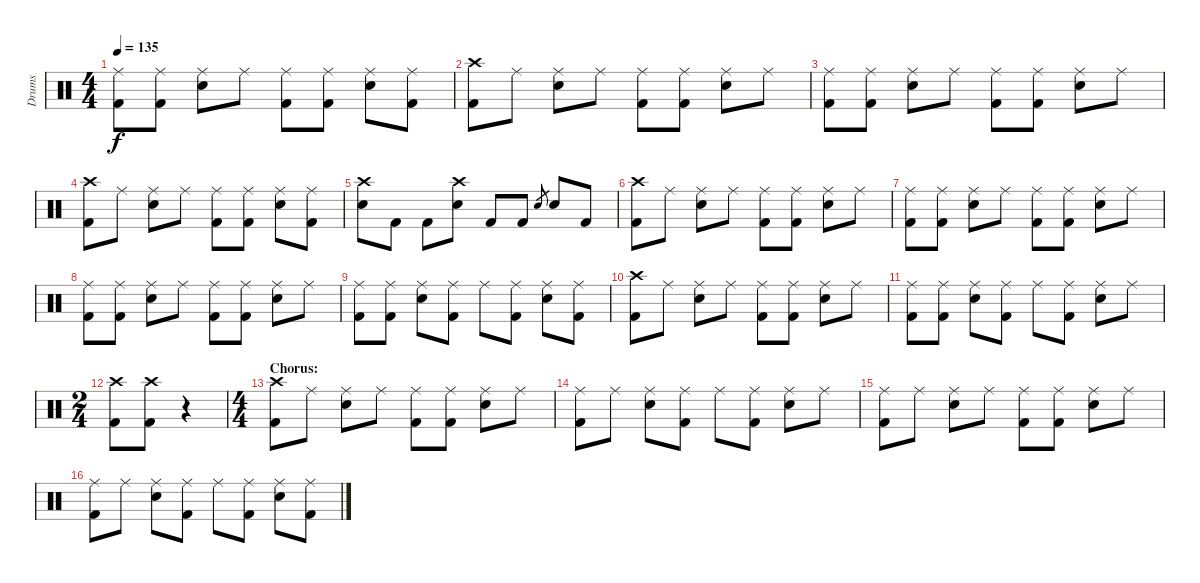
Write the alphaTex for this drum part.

\track ("Drums" "Drums") {instrument percussion}
\staff {score}
\articulation defaults
\ts (4 4)
\tempo 135
\clef neutral
\ks c
("Ride (middle)" "Kick (hit) 2").8{dy f} ("Ride (middle)" "Kick (hit) 2").8 ("Ride (middle)" "Electric Snare (hit)").8 "Ride (middle)".8 ("Ride (middle)" "Kick (hit) 2").8 ("Ride (middle)" "Kick (hit) 2").8 ("Ride (middle)" "Electric Snare (hit)").8 ("Ride (middle)" "Kick (hit) 2").8 |
("Crash high (hit)" "Kick (hit) 2").8 "Ride (middle)".8 ("Ride (middle)" "Electric Snare (hit)").8 "Ride (middle)".8 ("Ride (middle)" "Kick (hit) 2").8 ("Ride (middle)" "Kick (hit) 2").8 ("Ride (middle)" "Electric Snare (hit)").8 "Ride (middle)".8 |
("Ride (middle)" "Kick (hit) 2").8 ("Ride (middle)" "Kick (hit) 2").8 ("Ride (middle)" "Electric Snare (hit)").8 "Ride (middle)".8 ("Ride (middle)" "Kick (hit) 2").8 ("Ride (middle)" "Kick (hit) 2").8 ("Ride (middle)" "Electric Snare (hit)").8 "Ride (middle)".8 |
("Crash high (hit)" "Kick (hit) 2").8 "Ride (middle)".8 ("Ride (middle)" "Electric Snare (hit)").8 "Ride (middle)".8 ("Ride (middle)" "Kick (hit) 2").8 ("Ride (middle)" "Kick (hit) 2").8 ("Ride (middle)" "Electric Snare (hit)").8 ("Ride (middle)" "Kick (hit) 2").8 |
("Crash high (hit)" "Electric Snare (hit)").8 "Kick (hit) 2".8 "Kick (hit) 2".8 ("Crash high (hit)" "Electric Snare (hit)").8 "Kick (hit) 2".8 "Kick (hit) 2".8 "Electric Snare (hit)".8{gr} "Electric Snare (hit)".8 "Kick (hit) 2".8 |
("Crash high (hit)" "Kick (hit) 2").8 "Ride (middle)".8 ("Ride (middle)" "Electric Snare (hit)").8 "Ride (middle)".8 ("Ride (middle)" "Kick (hit) 2").8 ("Ride (middle)" "Kick (hit) 2").8 ("Ride (middle)" "Electric Snare (hit)").8 "Ride (middle)".8 |
("Ride (middle)" "Kick (hit) 2").8 ("Ride (middle)" "Kick (hit) 2").8 ("Ride (middle)" "Electric Snare (hit)").8 "Ride (middle)".8 ("Ride (middle)" "Kick (hit) 2").8 ("Ride (middle)" "Kick (hit) 2").8 ("Ride (middle)" "Electric Snare (hit)").8 "Ride (middle)".8 |
("Ride (middle)" "Kick (hit) 2").8 ("Ride (middle)" "Kick (hit) 2").8 ("Ride (middle)" "Electric Snare (hit)").8 "Ride (middle)".8 ("Ride (middle)" "Kick (hit) 2").8 ("Ride (middle)" "Kick (hit) 2").8 ("Ride (middle)" "Electric Snare (hit)").8 "Ride (middle)".8 |
("Ride (middle)" "Kick (hit) 2").8 ("Ride (middle)" "Kick (hit) 2").8 ("Ride (middle)" "Electric Snare (hit)").8 ("Ride (middle)" "Kick (hit) 2").8 "Ride (middle)".8 ("Ride (middle)" "Kick (hit) 2").8 ("Ride (middle)" "Electric Snare (hit)").8 ("Ride (middle)" "Kick (hit) 2").8 |
("Crash high (hit)" "Kick (hit) 2").8 "Ride (middle)".8 ("Ride (middle)" "Electric Snare (hit)").8 "Ride (middle)".8 ("Ride (middle)" "Kick (hit) 2").8 ("Ride (middle)" "Kick (hit) 2").8 ("Ride (middle)" "Electric Snare (hit)").8 "Ride (middle)".8 |
("Ride (middle)" "Kick (hit) 2").8 ("Ride (middle)" "Kick (hit) 2").8 ("Ride (middle)" "Electric Snare (hit)").8 ("Ride (middle)" "Kick (hit) 2").8 "Ride (middle)".8 ("Ride (middle)" "Kick (hit) 2").8 ("Ride (middle)" "Electric Snare (hit)").8 "Ride (middle)".8 |
\ts (2 4)
("Crash high (hit)" "Kick (hit) 2").8 ("Crash high (hit)" "Kick (hit) 2").8 r.4 |
\ts (4 4)
\section ("" "Chorus:")
("Crash high (hit)" "Kick (hit) 2").8 "Ride (middle)".8 ("Ride (middle)" "Electric Snare (hit)").8 "Ride (middle)".8 ("Ride (middle)" "Kick (hit) 2").8 ("Ride (middle)" "Kick (hit) 2").8 ("Ride (middle)" "Electric Snare (hit)").8 "Ride (middle)".8 |
("Ride (middle)" "Kick (hit) 2").8 "Ride (middle)".8 ("Ride (middle)" "Electric Snare (hit)").8 ("Ride (middle)" "Kick (hit) 2").8 "Ride (middle)".8 ("Ride (middle)" "Kick (hit) 2").8 ("Ride (middle)" "Electric Snare (hit)").8 "Ride (middle)".8 |
("Ride (middle)" "Kick (hit) 2").8 "Ride (middle)".8 ("Ride (middle)" "Electric Snare (hit)").8 "Ride (middle)".8 ("Ride (middle)" "Kick (hit) 2").8 ("Ride (middle)" "Kick (hit) 2").8 ("Ride (middle)" "Electric Snare (hit)").8 "Ride (middle)".8 |
("Ride (middle)" "Kick (hit) 2").8 "Ride (middle)".8 ("Ride (middle)" "Electric Snare (hit)").8 ("Ride (middle)" "Kick (hit) 2").8 "Ride (middle)".8 ("Ride (middle)" "Kick (hit) 2").8 ("Ride (middle)" "Electric Snare (hit)").8 ("Ride (middle)" "Kick (hit) 2").8
